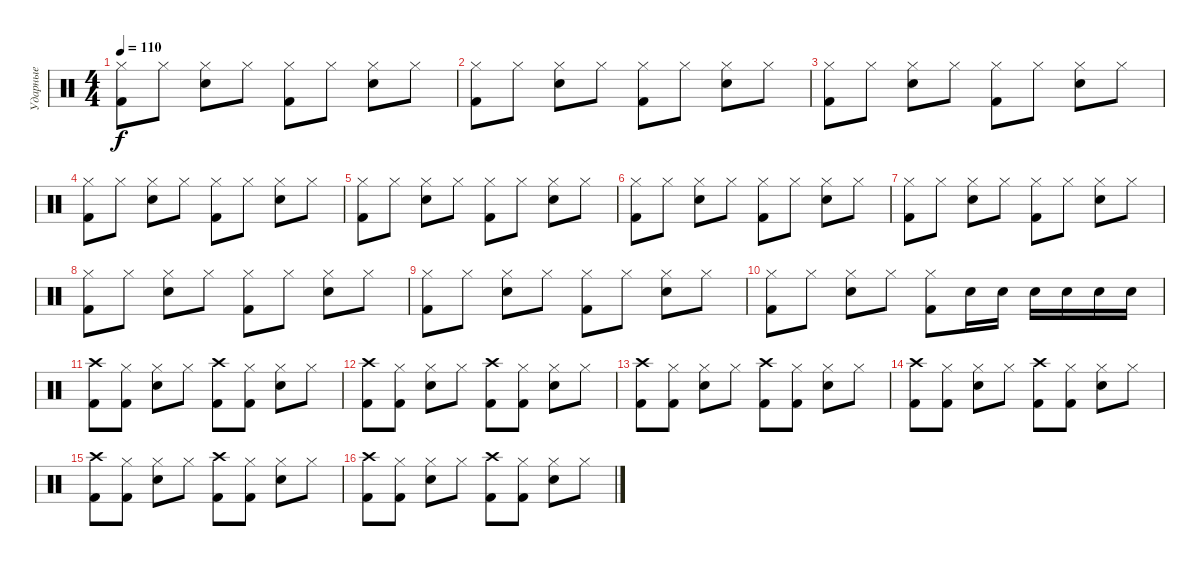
\track ("Ударные" "Ударные") {instrument percussion}
\staff {score}
\articulation defaults
\ts (4 4)
\tempo 110
\clef neutral
\ks c
("Hi-Hat (closed)" "Kick (hit) 2").8{dy f} "Hi-Hat (closed)".8 ("Hi-Hat (closed)" "Snare (hit) 2").8 "Hi-Hat (closed)".8 ("Hi-Hat (closed)" "Kick (hit) 2").8 "Hi-Hat (closed)".8 ("Hi-Hat (closed)" "Snare (hit) 2").8 "Hi-Hat (closed)".8 |
("Hi-Hat (closed)" "Kick (hit) 2").8 "Hi-Hat (closed)".8 ("Hi-Hat (closed)" "Snare (hit) 2").8 "Hi-Hat (closed)".8 ("Hi-Hat (closed)" "Kick (hit) 2").8 "Hi-Hat (closed)".8 ("Hi-Hat (closed)" "Snare (hit) 2").8 "Hi-Hat (closed)".8 |
("Hi-Hat (closed)" "Kick (hit) 2").8 "Hi-Hat (closed)".8 ("Hi-Hat (closed)" "Snare (hit) 2").8 "Hi-Hat (closed)".8 ("Hi-Hat (closed)" "Kick (hit) 2").8 "Hi-Hat (closed)".8 ("Hi-Hat (closed)" "Snare (hit) 2").8 "Hi-Hat (closed)".8 |
("Hi-Hat (closed)" "Kick (hit) 2").8 "Hi-Hat (closed)".8 ("Hi-Hat (closed)" "Snare (hit) 2").8 "Hi-Hat (closed)".8 ("Hi-Hat (closed)" "Kick (hit) 2").8 "Hi-Hat (closed)".8 ("Hi-Hat (closed)" "Snare (hit) 2").8 "Hi-Hat (closed)".8 |
("Hi-Hat (closed)" "Kick (hit) 2").8 "Hi-Hat (closed)".8 ("Hi-Hat (closed)" "Snare (hit) 2").8 "Hi-Hat (closed)".8 ("Hi-Hat (closed)" "Kick (hit) 2").8 "Hi-Hat (closed)".8 ("Hi-Hat (closed)" "Snare (hit) 2").8 "Hi-Hat (closed)".8 |
("Hi-Hat (closed)" "Kick (hit) 2").8 "Hi-Hat (closed)".8 ("Hi-Hat (closed)" "Snare (hit) 2").8 "Hi-Hat (closed)".8 ("Hi-Hat (closed)" "Kick (hit) 2").8 "Hi-Hat (closed)".8 ("Hi-Hat (closed)" "Snare (hit) 2").8 "Hi-Hat (closed)".8 |
("Hi-Hat (closed)" "Kick (hit) 2").8 "Hi-Hat (closed)".8 ("Hi-Hat (closed)" "Snare (hit) 2").8 "Hi-Hat (closed)".8 ("Hi-Hat (closed)" "Kick (hit) 2").8 "Hi-Hat (closed)".8 ("Hi-Hat (closed)" "Snare (hit) 2").8 "Hi-Hat (closed)".8 |
("Hi-Hat (closed)" "Kick (hit) 2").8 "Hi-Hat (closed)".8 ("Hi-Hat (closed)" "Snare (hit) 2").8 "Hi-Hat (closed)".8 ("Hi-Hat (closed)" "Kick (hit) 2").8 "Hi-Hat (closed)".8 ("Hi-Hat (closed)" "Snare (hit) 2").8 "Hi-Hat (closed)".8 |
("Hi-Hat (closed)" "Kick (hit) 2").8 "Hi-Hat (closed)".8 ("Hi-Hat (closed)" "Snare (hit) 2").8 "Hi-Hat (closed)".8 ("Hi-Hat (closed)" "Kick (hit) 2").8 "Hi-Hat (closed)".8 ("Hi-Hat (closed)" "Snare (hit) 2").8 "Hi-Hat (closed)".8 |
("Hi-Hat (closed)" "Kick (hit) 2").8 "Hi-Hat (closed)".8 ("Hi-Hat (closed)" "Snare (hit) 2").8 "Hi-Hat (closed)".8 ("Hi-Hat (closed)" "Kick (hit) 2").8 "Snare (hit) 2".16 "Snare (hit) 2".16 "Snare (hit) 2".16 "Snare (hit) 2".16 "Snare (hit) 2".16 "Snare (hit) 2".16 |
("Crash high (hit)" "Kick (hit) 2").8 ("Hi-Hat (closed)" "Kick (hit) 2").8 ("Hi-Hat (closed)" "Snare (hit) 2").8 "Hi-Hat (closed)".8 ("Crash high (hit)" "Kick (hit) 2").8 ("Hi-Hat (closed)" "Kick (hit) 2").8 ("Hi-Hat (closed)" "Snare (hit) 2").8 "Hi-Hat (closed)".8 |
("Crash high (hit)" "Kick (hit) 2").8 ("Hi-Hat (closed)" "Kick (hit) 2").8 ("Hi-Hat (closed)" "Snare (hit) 2").8 "Hi-Hat (closed)".8 ("Crash high (hit)" "Kick (hit) 2").8 ("Hi-Hat (closed)" "Kick (hit) 2").8 ("Hi-Hat (closed)" "Snare (hit) 2").8 "Hi-Hat (closed)".8 |
("Crash high (hit)" "Kick (hit) 2").8 ("Hi-Hat (closed)" "Kick (hit) 2").8 ("Hi-Hat (closed)" "Snare (hit) 2").8 "Hi-Hat (closed)".8 ("Crash high (hit)" "Kick (hit) 2").8 ("Hi-Hat (closed)" "Kick (hit) 2").8 ("Hi-Hat (closed)" "Snare (hit) 2").8 "Hi-Hat (closed)".8 |
("Crash high (hit)" "Kick (hit) 2").8 ("Hi-Hat (closed)" "Kick (hit) 2").8 ("Hi-Hat (closed)" "Snare (hit) 2").8 "Hi-Hat (closed)".8 ("Crash high (hit)" "Kick (hit) 2").8 ("Hi-Hat (closed)" "Kick (hit) 2").8 ("Hi-Hat (closed)" "Snare (hit) 2").8 "Hi-Hat (closed)".8 |
("Crash high (hit)" "Kick (hit) 2").8 ("Hi-Hat (closed)" "Kick (hit) 2").8 ("Hi-Hat (closed)" "Snare (hit) 2").8 "Hi-Hat (closed)".8 ("Crash high (hit)" "Kick (hit) 2").8 ("Hi-Hat (closed)" "Kick (hit) 2").8 ("Hi-Hat (closed)" "Snare (hit) 2").8 "Hi-Hat (closed)".8 |
("Crash high (hit)" "Kick (hit) 2").8 ("Hi-Hat (closed)" "Kick (hit) 2").8 ("Hi-Hat (closed)" "Snare (hit) 2").8 "Hi-Hat (closed)".8 ("Crash high (hit)" "Kick (hit) 2").8 ("Hi-Hat (closed)" "Kick (hit) 2").8 ("Hi-Hat (closed)" "Snare (hit) 2").8 "Hi-Hat (closed)".8
